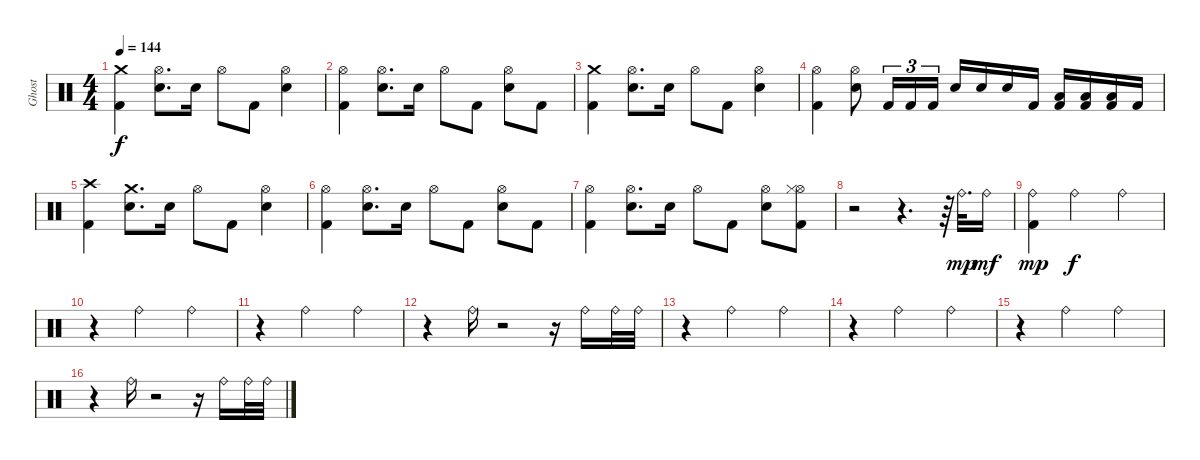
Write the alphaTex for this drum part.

\track ("Ghost" "Ghost") {instrument percussion}
\staff {score}
\articulation defaults
\ts (4 4)
\tempo 144
\clef neutral
\ks c
("Crash medium (hit)" "Kick (hit) 2").4{dy f} ("Hi-Hat (open)" "Electric Snare (hit)").8{d} "Electric Snare (hit)".16 "Hi-Hat (open)".8 "Kick (hit) 2".8 ("Hi-Hat (open)" "Electric Snare (hit)").4 |
("Hi-Hat (open)" "Kick (hit) 2").4 ("Hi-Hat (open)" "Electric Snare (hit)").8{d} "Electric Snare (hit)".16 "Hi-Hat (open)".8 "Kick (hit) 2".8 ("Hi-Hat (open)" "Electric Snare (hit)").8 "Kick (hit) 2".8 |
("Crash medium (hit)" "Kick (hit) 2").4 ("Hi-Hat (open)" "Electric Snare (hit)").8{d} "Electric Snare (hit)".16 "Hi-Hat (open)".8 "Kick (hit) 2".8 ("Hi-Hat (open)" "Electric Snare (hit)").4 |
("Hi-Hat (open)" "Kick (hit) 2").4 ("Hi-Hat (open)" "Electric Snare (hit)").8 "Kick (hit) 2".16{tu (3 2)} "Kick (hit) 2".16{tu (3 2)} "Kick (hit) 2".16{tu (3 2)} "Electric Snare (hit)".16 "Electric Snare (hit)".16 "Electric Snare (hit)".16 "Kick (hit) 2".16 ("Low Tom (hit)" "Kick (hit) 2").16 ("Low Tom (hit)" "Kick (hit) 2").16 ("Low Tom (hit)" "Kick (hit) 2").16 "Kick (hit) 2".16 |
("Crash high (hit)" "Kick (hit) 2").4 ("Crash medium (hit)" "Electric Snare (hit)").8{d} "Electric Snare (hit)".16 "Hi-Hat (open)".8 "Kick (hit) 2".8 ("Hi-Hat (open)" "Electric Snare (hit)").4 |
("Hi-Hat (open)" "Kick (hit) 2").4 ("Hi-Hat (open)" "Electric Snare (hit)").8{d} "Electric Snare (hit)".16 "Hi-Hat (open)".8 "Kick (hit) 2".8 ("Hi-Hat (open)" "Electric Snare (hit)").8 "Kick (hit) 2".8 |
("Hi-Hat (open)" "Kick (hit) 2").4 ("Hi-Hat (open)" "Electric Snare (hit)").8{d} "Electric Snare (hit)".16 "Hi-Hat (open)".8 "Kick (hit) 2".8 ("Hi-Hat (open)" "Electric Snare (hit)").8 ("Hi-Hat (open)" "Hi-Hat (closed)" "Kick (hit) 2").8 |
r.2 r.4{d} r.64 "Ride (bell)".32{d dy mp} "Ride (bell)".16{dy mf} |
("Ride (bell)" "Kick (hit) 2").4{dy mp} "Ride (bell)".2{dy f} "Ride (bell)".4 |
r.4 "Ride (bell)".2 "Ride (bell)".4 |
r.4 "Ride (bell)".2 "Ride (bell)".4 |
r.4 "Ride (bell)".16 r.2 r.16 "Ride (bell)".16 "Ride (bell)".32 "Ride (bell)".32 |
r.4 "Ride (bell)".2 "Ride (bell)".4 |
r.4 "Ride (bell)".2 "Ride (bell)".4 |
r.4 "Ride (bell)".2 "Ride (bell)".4 |
r.4 "Ride (bell)".16 r.2 r.16 "Ride (bell)".16 "Ride (bell)".32 "Ride (bell)".32
